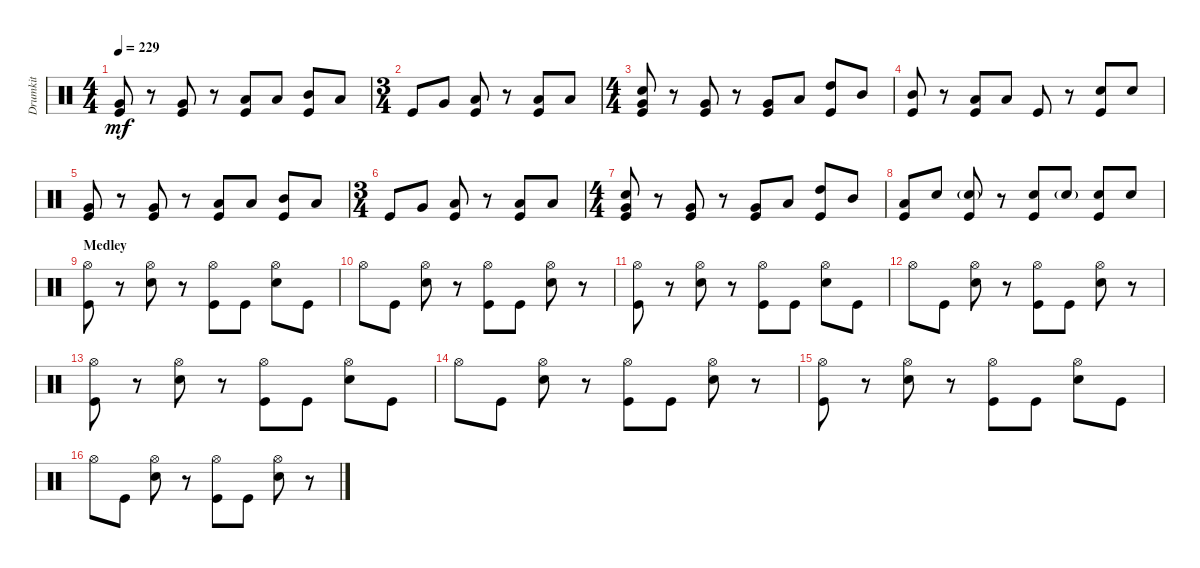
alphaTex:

\track ("Drumkit" "Drumkit") {instrument percussion}
\staff {score}
\articulation defaults
\ts (4 4)
\tempo 229
\clef neutral
\ks c
("Kick (hit)" "Very Low Tom (hit)").8{dy mf} r.8 ("Kick (hit)" "Very Low Tom (hit)").8 r.8 ("Kick (hit)" "Low Tom (hit)").8 "Low Tom (hit)".8 ("Kick (hit)" "Mid Tom (hit)").8 "Low Tom (hit)".8 |
\ts (3 4)
"Kick (hit)".8 "Very Low Tom (hit)".8 ("Kick (hit)" "Low Tom (hit)").8 r.8 ("Kick (hit)" "Low Tom (hit)").8 "Low Tom (hit)".8 |
\ts (4 4)
("Kick (hit)" "Snare (hit) 2" "Very Low Tom (hit)").8 r.8 ("Kick (hit)" "Very Low Tom (hit)").8 r.8 ("Kick (hit)" "Very Low Tom (hit)").8 "Low Tom (hit)".8 ("Kick (hit)" "High Tom (hit)").8 "Mid Tom (hit)".8 |
("Kick (hit)" "Mid Tom (hit)").8 r.8 ("Kick (hit)" "Low Tom (hit)").8 "Low Tom (hit)".8 "Kick (hit)".8 r.8 ("Kick (hit)" "Snare (hit) 2").8 "Snare (hit) 2".8 |
("Kick (hit)" "Very Low Tom (hit)").8 r.8 ("Kick (hit)" "Very Low Tom (hit)").8 r.8 ("Kick (hit)" "Low Tom (hit)").8 "Low Tom (hit)".8 ("Kick (hit)" "Mid Tom (hit)").8 "Low Tom (hit)".8 |
\ts (3 4)
"Kick (hit)".8 "Very Low Tom (hit)".8 ("Kick (hit)" "Low Tom (hit)").8 r.8 ("Kick (hit)" "Low Tom (hit)").8 "Low Tom (hit)".8 |
\ts (4 4)
("Kick (hit)" "Snare (hit) 2" "Very Low Tom (hit)").8 r.8 ("Kick (hit)" "Very Low Tom (hit)").8 r.8 ("Kick (hit)" "Very Low Tom (hit)").8 "Low Tom (hit)".8 ("Kick (hit)" "High Tom (hit)").8 "Mid Tom (hit)".8 |
("Kick (hit)" "Low Tom (hit)").8 "Snare (hit) 2".8 ("Kick (hit)" "Snare (hit) 2"{g}).8 r.8 ("Kick (hit)" "Snare (hit) 2").8 "Snare (hit) 2"{g}.8 ("Kick (hit)" "Snare (hit) 2").8 "Snare (hit) 2".8 |
\section ("" "Medley")
("Kick (hit)" "Hi-Hat (open)").8 r.8 ("Snare (hit) 2" "Hi-Hat (open)").8 r.8 ("Kick (hit)" "Hi-Hat (open)").8 "Kick (hit)".8 ("Snare (hit) 2" "Hi-Hat (open)").8 "Kick (hit)".8 |
"Hi-Hat (open)".8 "Kick (hit)".8 ("Snare (hit) 2" "Hi-Hat (open)").8 r.8 ("Kick (hit)" "Hi-Hat (open)").8 "Kick (hit)".8 ("Snare (hit) 2" "Hi-Hat (open)").8 r.8 |
("Kick (hit)" "Hi-Hat (open)").8 r.8 ("Snare (hit) 2" "Hi-Hat (open)").8 r.8 ("Kick (hit)" "Hi-Hat (open)").8 "Kick (hit)".8 ("Snare (hit) 2" "Hi-Hat (open)").8 "Kick (hit)".8 |
"Hi-Hat (open)".8 "Kick (hit)".8 ("Snare (hit) 2" "Hi-Hat (open)").8 r.8 ("Kick (hit)" "Hi-Hat (open)").8 "Kick (hit)".8 ("Snare (hit) 2" "Hi-Hat (open)").8 r.8 |
("Kick (hit)" "Hi-Hat (open)").8 r.8 ("Snare (hit) 2" "Hi-Hat (open)").8 r.8 ("Kick (hit)" "Hi-Hat (open)").8 "Kick (hit)".8 ("Snare (hit) 2" "Hi-Hat (open)").8 "Kick (hit)".8 |
"Hi-Hat (open)".8 "Kick (hit)".8 ("Snare (hit) 2" "Hi-Hat (open)").8 r.8 ("Kick (hit)" "Hi-Hat (open)").8 "Kick (hit)".8 ("Snare (hit) 2" "Hi-Hat (open)").8 r.8 |
("Kick (hit)" "Hi-Hat (open)").8 r.8 ("Snare (hit) 2" "Hi-Hat (open)").8 r.8 ("Kick (hit)" "Hi-Hat (open)").8 "Kick (hit)".8 ("Snare (hit) 2" "Hi-Hat (open)").8 "Kick (hit)".8 |
"Hi-Hat (open)".8 "Kick (hit)".8 ("Snare (hit) 2" "Hi-Hat (open)").8 r.8 ("Kick (hit)" "Hi-Hat (open)").8 "Kick (hit)".8 ("Snare (hit) 2" "Hi-Hat (open)").8 r.8
